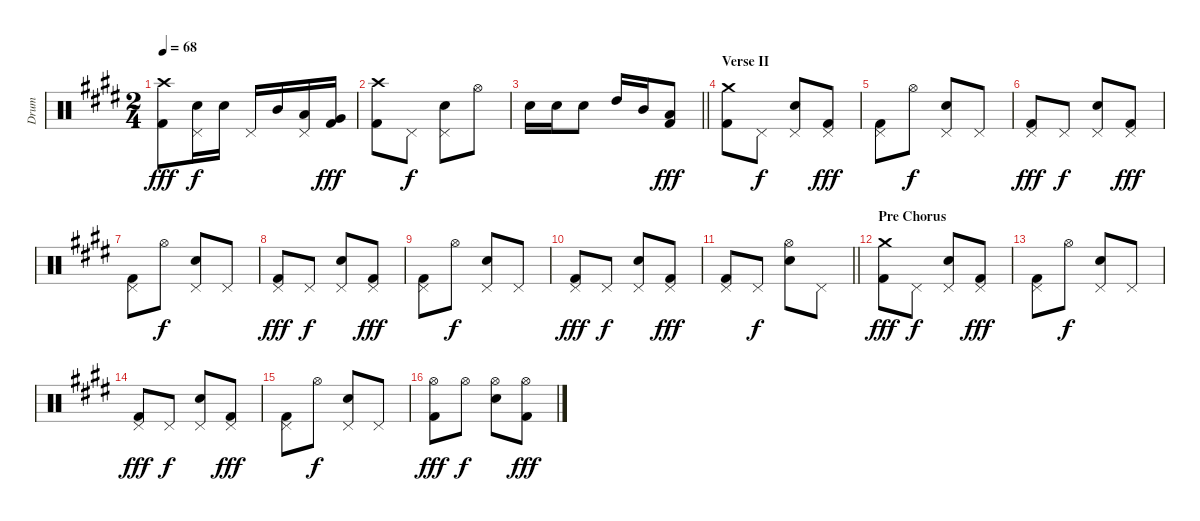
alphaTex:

\track ("Drum" "Drum") {instrument percussion}
\staff {score}
\articulation defaults
\ts (2 4)
\tempo 68
\clef neutral
\ks e
("Crash high (hit)" "Kick (hit) 2").8{dy fff} ("Pedal Hi-Hat (hit)" "Snare (hit) 2").16{dy f} "Snare (hit) 2".16 "Pedal Hi-Hat (hit)".16 "Mid Tom (hit)".16 ("Pedal Hi-Hat (hit)" "Low Tom (hit)").16 ("Very Low Tom (hit)" "Kick (hit) 2").16{dy fff} |
("Crash high (hit)" "Kick (hit) 2").8 "Pedal Hi-Hat (hit)".8{dy f} ("Pedal Hi-Hat (hit)" "Snare (hit) 2").8 "Hi-Hat (open)".8 |
\barLineRight lightlight "Snare (hit) 2".16 "Snare (hit) 2".16 "Snare (hit) 2".8 "High Tom (hit)".16 "Mid Tom (hit)".16
("Low Tom (hit)" "Kick (hit) 2").8{dy fff} |
\section ("" "Verse II")
("Crash medium (hit)" "Kick (hit) 2").8 "Pedal Hi-Hat (hit)".8{dy f} ("Pedal Hi-Hat (hit)" "Snare (hit) 2").8 ("Pedal Hi-Hat (hit)" "Kick (hit) 2").8{dy fff} |
("Pedal Hi-Hat (hit)" "Kick (hit) 2").8 "Hi-Hat (open)".8{dy f} ("Pedal Hi-Hat (hit)" "Snare (hit) 2").8 "Pedal Hi-Hat (hit)".8 |
("Pedal Hi-Hat (hit)" "Kick (hit) 2").8{dy fff} "Pedal Hi-Hat (hit)".8{dy f} ("Pedal Hi-Hat (hit)" "Snare (hit) 2").8 ("Pedal Hi-Hat (hit)" "Kick (hit) 2").8{dy fff} |
("Pedal Hi-Hat (hit)" "Kick (hit) 2").8 "Hi-Hat (open)".8{dy f} ("Pedal Hi-Hat (hit)" "Snare (hit) 2").8 "Pedal Hi-Hat (hit)".8 |
("Pedal Hi-Hat (hit)" "Kick (hit) 2").8{dy fff} "Pedal Hi-Hat (hit)".8{dy f} ("Pedal Hi-Hat (hit)" "Snare (hit) 2").8 ("Pedal Hi-Hat (hit)" "Kick (hit) 2").8{dy fff} |
("Pedal Hi-Hat (hit)" "Kick (hit) 2").8 "Hi-Hat (open)".8{dy f} ("Pedal Hi-Hat (hit)" "Snare (hit) 2").8 "Pedal Hi-Hat (hit)".8 |
("Pedal Hi-Hat (hit)" "Kick (hit) 2").8{dy fff} "Pedal Hi-Hat (hit)".8{dy f} ("Pedal Hi-Hat (hit)" "Snare (hit) 2").8 ("Pedal Hi-Hat (hit)" "Kick (hit) 2").8{dy fff} |
\barLineRight lightlight
("Pedal Hi-Hat (hit)" "Kick (hit) 2").8 "Pedal Hi-Hat (hit)".8{dy f} ("Hi-Hat (open)" "Snare (hit) 2").8 "Pedal Hi-Hat (hit)".8 |
\section ("" "Pre Chorus")
("Crash medium (hit)" "Kick (hit) 2").8{dy fff} "Pedal Hi-Hat (hit)".8{dy f} ("Pedal Hi-Hat (hit)" "Snare (hit) 2").8 ("Pedal Hi-Hat (hit)" "Kick (hit) 2").8{dy fff} |
("Pedal Hi-Hat (hit)" "Kick (hit) 2").8 "Hi-Hat (open)".8{dy f} ("Pedal Hi-Hat (hit)" "Snare (hit) 2").8 "Pedal Hi-Hat (hit)".8 |
("Pedal Hi-Hat (hit)" "Kick (hit) 2").8{dy fff} "Pedal Hi-Hat (hit)".8{dy f} ("Pedal Hi-Hat (hit)" "Snare (hit) 2").8 ("Pedal Hi-Hat (hit)" "Kick (hit) 2").8{dy fff} |
("Pedal Hi-Hat (hit)" "Kick (hit) 2").8 "Hi-Hat (open)".8{dy f} ("Pedal Hi-Hat (hit)" "Snare (hit) 2").8 "Pedal Hi-Hat (hit)".8 |
("Hi-Hat (open)" "Kick (hit) 2").8{dy fff} "Hi-Hat (open)".8{dy f} ("Hi-Hat (open)" "Snare (hit) 2").8 ("Hi-Hat (open)" "Kick (hit) 2").8{dy fff}
